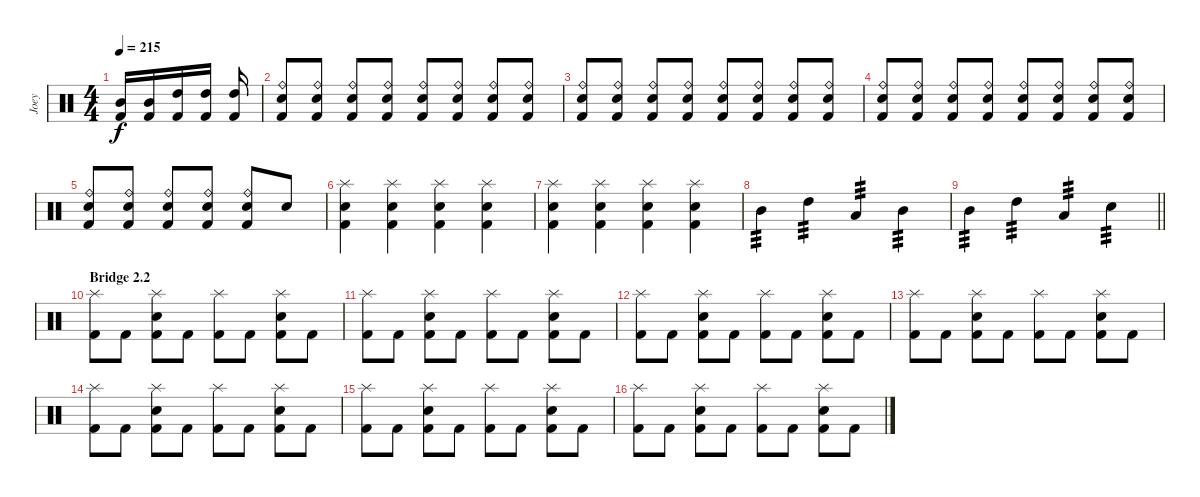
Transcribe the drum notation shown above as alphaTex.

\track ("Joey" "Joey") {instrument percussion}
\staff {score}
\articulation defaults
\ts (4 4)
\tempo 215
\clef neutral
\ks c
("Mid Tom (hit)" "Kick (hit) 2").16{dy f} ("Mid Tom (hit)" "Kick (hit) 2").16 ("High Tom (hit)" "Kick (hit) 2").16 ("High Tom (hit)" "Kick (hit) 2").16 ("High Tom (hit)" "Kick (hit) 2").16 |
("Ride (bell)" "Electric Snare (hit)" "Kick (hit) 2").8 ("Ride (bell)" "Electric Snare (hit)" "Kick (hit) 2").8 ("Ride (bell)" "Electric Snare (hit)" "Kick (hit) 2").8 ("Ride (bell)" "Electric Snare (hit)" "Kick (hit) 2").8 ("Ride (bell)" "Electric Snare (hit)" "Kick (hit) 2").8 ("Ride (bell)" "Electric Snare (hit)" "Kick (hit) 2").8 ("Ride (bell)" "Electric Snare (hit)" "Kick (hit) 2").8 ("Ride (bell)" "Electric Snare (hit)" "Kick (hit) 2").8 |
("Ride (bell)" "Electric Snare (hit)" "Kick (hit) 2").8 ("Ride (bell)" "Electric Snare (hit)" "Kick (hit) 2").8 ("Ride (bell)" "Electric Snare (hit)" "Kick (hit) 2").8 ("Ride (bell)" "Electric Snare (hit)" "Kick (hit) 2").8 ("Ride (bell)" "Electric Snare (hit)" "Kick (hit) 2").8 ("Ride (bell)" "Electric Snare (hit)" "Kick (hit) 2").8 ("Ride (bell)" "Electric Snare (hit)" "Kick (hit) 2").8 ("Ride (bell)" "Electric Snare (hit)" "Kick (hit) 2").8 |
("Ride (bell)" "Electric Snare (hit)" "Kick (hit) 2").8 ("Ride (bell)" "Electric Snare (hit)" "Kick (hit) 2").8 ("Ride (bell)" "Electric Snare (hit)" "Kick (hit) 2").8 ("Ride (bell)" "Electric Snare (hit)" "Kick (hit) 2").8 ("Ride (bell)" "Electric Snare (hit)" "Kick (hit) 2").8 ("Ride (bell)" "Electric Snare (hit)" "Kick (hit) 2").8 ("Ride (bell)" "Electric Snare (hit)" "Kick (hit) 2").8 ("Ride (bell)" "Electric Snare (hit)" "Kick (hit) 2").8 |
("Ride (bell)" "Electric Snare (hit)" "Kick (hit) 2").8 ("Ride (bell)" "Electric Snare (hit)" "Kick (hit) 2").8 ("Ride (bell)" "Electric Snare (hit)" "Kick (hit) 2").8 ("Ride (bell)" "Electric Snare (hit)" "Kick (hit) 2").8 ("Ride (bell)" "Electric Snare (hit)" "Kick (hit) 2").8 "Electric Snare (hit)".8 |
("Splash (hit)" "Electric Snare (hit)" "Kick (hit) 2").4 ("Splash (hit)" "Electric Snare (hit)" "Kick (hit) 2").4 ("Splash (hit)" "Electric Snare (hit)" "Kick (hit) 2").4 ("Splash (hit)" "Electric Snare (hit)" "Kick (hit) 2").4 |
("Splash (hit)" "Electric Snare (hit)" "Kick (hit) 2").4 ("Splash (hit)" "Electric Snare (hit)" "Kick (hit) 2").4 ("Splash (hit)" "Electric Snare (hit)" "Kick (hit) 2").4 ("Splash (hit)" "Electric Snare (hit)" "Kick (hit) 2").4 |
"Mid Tom (hit)".4{tp 3} "High Tom (hit)".4{tp 3} "Low Tom (hit)".4{tp 3} "Mid Tom (hit)".4{tp 3} |
\barLineRight lightlight "Mid Tom (hit)".4{tp 3} "High Tom (hit)".4{tp 3} "Low Tom (hit)".4{tp 3} "Electric Snare (hit)".4{tp 3}
|
\section ("" "Bridge 2.2")
("Splash (hit)" "Kick (hit) 2").8 "Kick (hit) 2".8 ("Splash (hit)" "Electric Snare (hit)" "Kick (hit) 2").8 "Kick (hit) 2".8 ("Splash (hit)" "Kick (hit) 2").8 "Kick (hit) 2".8 ("Splash (hit)" "Electric Snare (hit)" "Kick (hit) 2").8 "Kick (hit) 2".8 |
("Splash (hit)" "Kick (hit) 2").8 "Kick (hit) 2".8 ("Splash (hit)" "Electric Snare (hit)" "Kick (hit) 2").8 "Kick (hit) 2".8 ("Splash (hit)" "Kick (hit) 2").8 "Kick (hit) 2".8 ("Splash (hit)" "Electric Snare (hit)" "Kick (hit) 2").8 "Kick (hit) 2".8 |
("Splash (hit)" "Kick (hit) 2").8 "Kick (hit) 2".8 ("Splash (hit)" "Electric Snare (hit)" "Kick (hit) 2").8 "Kick (hit) 2".8 ("Splash (hit)" "Kick (hit) 2").8 "Kick (hit) 2".8 ("Splash (hit)" "Electric Snare (hit)" "Kick (hit) 2").8 "Kick (hit) 2".8 |
("Splash (hit)" "Kick (hit) 2").8 "Kick (hit) 2".8 ("Splash (hit)" "Electric Snare (hit)" "Kick (hit) 2").8 "Kick (hit) 2".8 ("Splash (hit)" "Kick (hit) 2").8 "Kick (hit) 2".8 ("Splash (hit)" "Electric Snare (hit)" "Kick (hit) 2").8 "Kick (hit) 2".8 |
("Splash (hit)" "Kick (hit) 2").8 "Kick (hit) 2".8 ("Splash (hit)" "Electric Snare (hit)" "Kick (hit) 2").8 "Kick (hit) 2".8 ("Splash (hit)" "Kick (hit) 2").8 "Kick (hit) 2".8 ("Splash (hit)" "Electric Snare (hit)" "Kick (hit) 2").8 "Kick (hit) 2".8 |
("Splash (hit)" "Kick (hit) 2").8 "Kick (hit) 2".8 ("Splash (hit)" "Electric Snare (hit)" "Kick (hit) 2").8 "Kick (hit) 2".8 ("Splash (hit)" "Kick (hit) 2").8 "Kick (hit) 2".8 ("Splash (hit)" "Electric Snare (hit)" "Kick (hit) 2").8 "Kick (hit) 2".8 |
("Splash (hit)" "Kick (hit) 2").8 "Kick (hit) 2".8 ("Splash (hit)" "Electric Snare (hit)" "Kick (hit) 2").8 "Kick (hit) 2".8 ("Splash (hit)" "Kick (hit) 2").8 "Kick (hit) 2".8 ("Splash (hit)" "Electric Snare (hit)" "Kick (hit) 2").8 "Kick (hit) 2".8
